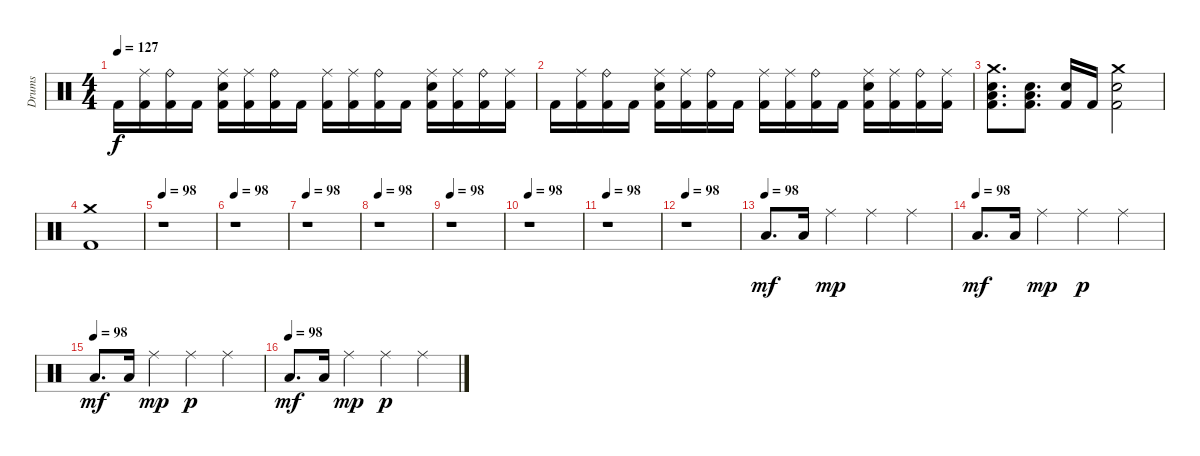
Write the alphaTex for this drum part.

\track ("Drums" "Drums") {instrument percussion}
\staff {score}
\articulation defaults
\ts (4 4)
\tempo 127
\clef neutral
\ks c "Kick (hit) 2".16{dy f}
("Kick (hit) 2" "Ride (middle)").16 ("Kick (hit) 2" "Ride (bell)").16 "Kick (hit) 2".16 ("Kick (hit) 2" "Electric Snare (hit)" "Ride (middle)").16 ("Kick (hit) 2" "Ride (middle)").16 ("Kick (hit) 2" "Ride (bell)").16 "Kick (hit) 2".16 ("Kick (hit) 2" "Ride (middle)").16 ("Kick (hit) 2" "Ride (middle)").16 ("Kick (hit) 2" "Ride (bell)").16 "Kick (hit) 2".16 ("Kick (hit) 2" "Electric Snare (hit)" "Ride (middle)").16 ("Kick (hit) 2" "Ride (middle)").16 ("Kick (hit) 2" "Ride (bell)").16 ("Kick (hit) 2" "Ride (middle)").16 |
"Kick (hit) 2".16 ("Kick (hit) 2" "Ride (middle)").16 ("Kick (hit) 2" "Ride (bell)").16 "Kick (hit) 2".16 ("Kick (hit) 2" "Electric Snare (hit)" "Ride (middle)").16 ("Kick (hit) 2" "Ride (middle)").16 ("Kick (hit) 2" "Ride (bell)").16 "Kick (hit) 2".16 ("Kick (hit) 2" "Ride (middle)").16 ("Kick (hit) 2" "Ride (middle)").16 ("Kick (hit) 2" "Ride (bell)").16 "Kick (hit) 2".16 ("Kick (hit) 2" "Electric Snare (hit)" "Ride (middle)").16 ("Kick (hit) 2" "Ride (middle)").16 ("Kick (hit) 2" "Ride (bell)").16 ("Kick (hit) 2" "Ride (middle)").16 |
("Kick (hit) 2" "Electric Snare (hit)" "Low Floor Tom (hit)" "Crash medium (hit)").8{d} ("Kick (hit) 2" "Electric Snare (hit)" "Low Floor Tom (hit)").8{d} ("Kick (hit) 2" "Electric Snare (hit)").16 "Kick (hit) 2".16 ("Kick (hit) 2" "Electric Snare (hit)" "Crash medium (hit)").2 |
("Kick (hit) 2" "Crash medium (hit)").1 |
\tempo 98
r.1 |
\tempo 98
r.1 |
\tempo 98
r.1 |
\tempo 98
r.1 |
\tempo 98
r.1 |
\tempo 98
r.1 |
\tempo 98
r.1 |
\tempo 98
r.1 |
\tempo (98)
"Low Tom (hit)".8{d dy mf} "Low Tom (hit)".16 "Ride (middle)".4{dy mp} "Ride (middle)".4 "Ride (middle)".4 |
\tempo (98)
"Low Tom (hit)".8{d dy mf} "Low Tom (hit)".16 "Ride (middle)".4{dy mp} "Ride (middle)".4{dy p} "Ride (middle)".4 |
\tempo (98)
"Low Tom (hit)".8{d dy mf} "Low Tom (hit)".16 "Ride (middle)".4{dy mp} "Ride (middle)".4{dy p} "Ride (middle)".4 |
\tempo (98)
"Low Tom (hit)".8{d dy mf} "Low Tom (hit)".16 "Ride (middle)".4{dy mp} "Ride (middle)".4{dy p} "Ride (middle)".4
